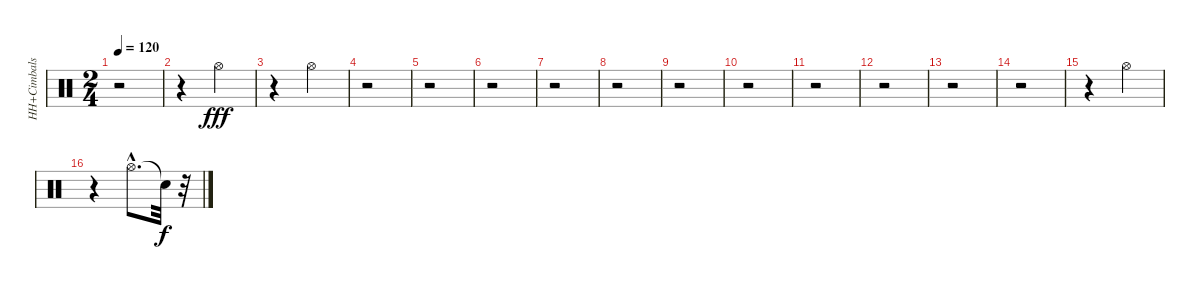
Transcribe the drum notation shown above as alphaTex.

\track ("HH+Cimbals" "HH+Cimbals") {instrument percussion}
\staff {score}
\articulation defaults
\ts (2 4)
\tempo 120
\clef neutral
\ks c
r.2{dy f} |
r.4 "Hi-Hat (open)".4{dy fff} |
r.4 "Hi-Hat (open)".4 |
r.2 |
r.2 |
r.2 |
r.2 |
r.2 |
r.2 |
r.2 |
r.2 |
r.2 |
r.2 |
r.2 |
r.4 "Hi-Hat (open)".4 |
r.4 "Hi-Hat (open)"{hac}.8{d} "Snare (hit)"{t}.32{dy f} r.32
